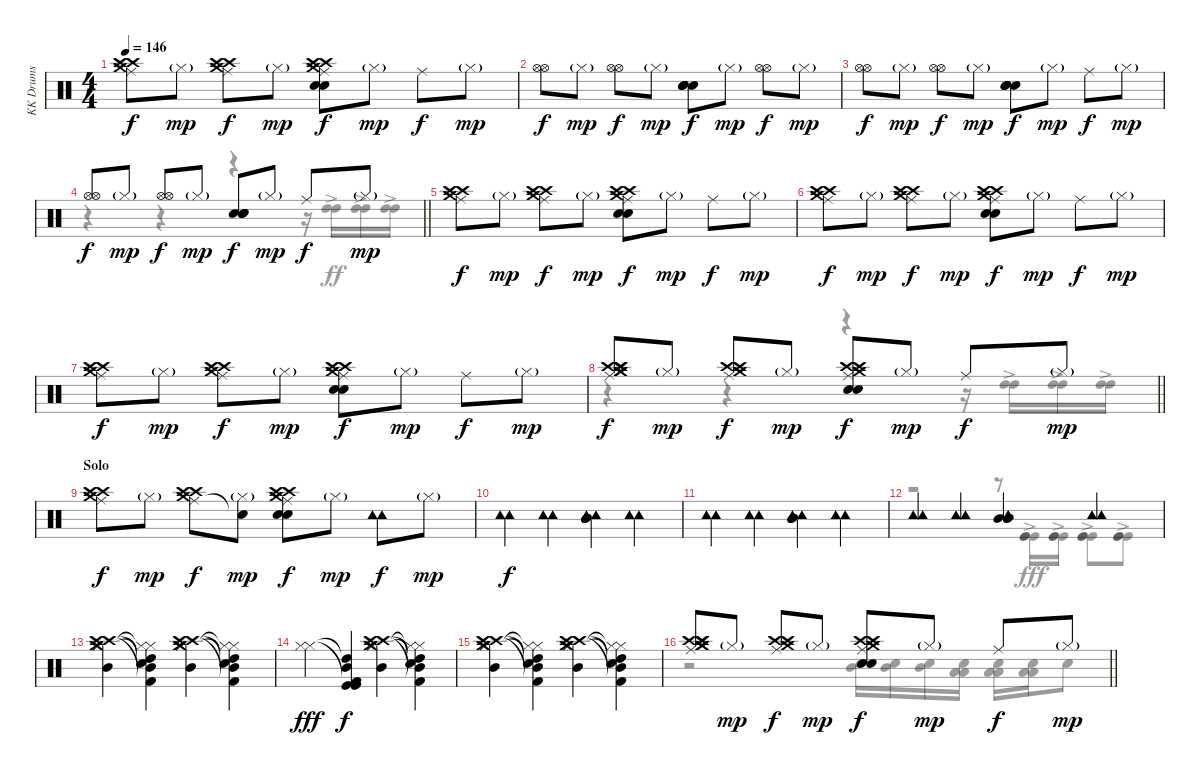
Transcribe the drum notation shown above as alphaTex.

\track ("KK Drums" "KK Drums") {instrument percussion}
\staff {score}
\articulation defaults
\voice
\ts (4 4)
\tempo 146
\clef neutral
\ks c
("Crash high (hit)" "Ride (middle)" "Crash medium (hit)" "Crash high (hit)").8{dy f} "Hi-Hat (closed)"{g}.8{dy mp} ("Crash high (hit)" "Ride (middle)" "Crash medium (hit)" "Crash high (hit)").8{dy f} "Hi-Hat (closed)"{g}.8{dy mp} ("Crash high (hit)" "Ride (middle)" "Snare (hit) 2" "Snare (hit) 2" "Crash medium (hit)" "Crash high (hit)").8{dy f} "Hi-Hat (closed)"{g}.8{dy mp} "Ride (middle)".8{dy f} "Hi-Hat (closed)"{g}.8{dy mp} |
("Hi-Hat (open)" "Hi-Hat (open)").8{dy f} "Hi-Hat (closed)"{g}.8{dy mp} ("Hi-Hat (open)" "Hi-Hat (open)").8{dy f} "Hi-Hat (closed)"{g}.8{dy mp} ("Snare (hit) 2" "Snare (hit) 2" "Snare (hit) 2" "Snare (hit) 2").8{dy f} "Hi-Hat (closed)"{g}.8{dy mp} ("Hi-Hat (open)" "Hi-Hat (open)").8{dy f} "Hi-Hat (closed)"{g}.8{dy mp} |
("Hi-Hat (open)" "Hi-Hat (open)").8{dy f} "Hi-Hat (closed)"{g}.8{dy mp} ("Hi-Hat (open)" "Hi-Hat (open)").8{dy f} "Hi-Hat (closed)"{g}.8{dy mp} ("Snare (hit) 2" "Snare (hit) 2" "Snare (hit) 2" "Snare (hit) 2").8{dy f} "Hi-Hat (closed)"{g}.8{dy mp} "Ride (middle)".8{dy f} "Hi-Hat (closed)"{g}.8{dy mp} |
\barLineRight lightlight
("Hi-Hat (open)" "Hi-Hat (open)").8{dy f} "Hi-Hat (closed)"{g}.8{dy mp} ("Hi-Hat (open)" "Hi-Hat (open)").8{dy f} "Hi-Hat (closed)"{g}.8{dy mp} ("Snare (hit) 2" "Snare (hit) 2" "Snare (hit) 2" "Snare (hit) 2").8{dy f} "Hi-Hat (closed)"{g}.8{dy mp} "Ride (middle)".8{dy f} "Hi-Hat (closed)"{g}.8{dy mp} |
("Crash high (hit)" "Ride (middle)" "Crash medium (hit)" "Crash high (hit)").8{dy f} "Hi-Hat (closed)"{g}.8{dy mp} ("Crash high (hit)" "Ride (middle)" "Crash medium (hit)" "Crash high (hit)").8{dy f} "Hi-Hat (closed)"{g}.8{dy mp} ("Crash high (hit)" "Ride (middle)" "Snare (hit) 2" "Snare (hit) 2" "Crash medium (hit)" "Crash high (hit)").8{dy f} "Hi-Hat (closed)"{g}.8{dy mp} "Ride (middle)".8{dy f} "Hi-Hat (closed)"{g}.8{dy mp} |
("Crash high (hit)" "Ride (middle)" "Crash medium (hit)" "Crash high (hit)").8{dy f} "Hi-Hat (closed)"{g}.8{dy mp} ("Crash high (hit)" "Ride (middle)" "Crash medium (hit)" "Crash high (hit)").8{dy f} "Hi-Hat (closed)"{g}.8{dy mp} ("Crash high (hit)" "Ride (middle)" "Snare (hit) 2" "Snare (hit) 2" "Crash medium (hit)" "Crash high (hit)").8{dy f} "Hi-Hat (closed)"{g}.8{dy mp} "Ride (middle)".8{dy f} "Hi-Hat (closed)"{g}.8{dy mp} |
("Crash high (hit)" "Ride (middle)" "Crash medium (hit)" "Crash high (hit)").8{dy f} "Hi-Hat (closed)"{g}.8{dy mp} ("Crash high (hit)" "Ride (middle)" "Crash medium (hit)" "Crash high (hit)").8{dy f} "Hi-Hat (closed)"{g}.8{dy mp} ("Crash high (hit)" "Ride (middle)" "Snare (hit) 2" "Snare (hit) 2" "Crash medium (hit)" "Crash high (hit)").8{dy f} "Hi-Hat (closed)"{g}.8{dy mp} "Ride (middle)".8{dy f} "Hi-Hat (closed)"{g}.8{dy mp} |
\barLineRight lightlight
("Crash high (hit)" "Ride (middle)" "Crash high (hit)" "Crash medium (hit)" "Crash medium (hit)" "Crash high (hit)").8{dy f} "Hi-Hat (closed)"{g}.8{dy mp} ("Crash high (hit)" "Ride (middle)" "Crash medium (hit)" "Crash high (hit)").8{dy f} "Hi-Hat (closed)"{g}.8{dy mp} ("Crash high (hit)" "Ride (middle)" "Snare (hit) 2" "Snare (hit) 2" "Crash medium (hit)" "Crash high (hit)").8{dy f} "Hi-Hat (closed)"{g}.8{dy mp} "Ride (middle)".8{dy f} "Hi-Hat (closed)"{g}.8{dy mp} |
\section ("" "Solo")
("Crash high (hit)" "Ride (middle)" "Crash medium (hit)" "Crash high (hit)").8{dy f} "Hi-Hat (closed)"{g}.8{dy mp} ("Crash high (hit)" "Ride (middle)" "Crash medium (hit)" "Crash high (hit)").8{dy f} ("Hi-Hat (closed)"{g} "Snare (hit)"{t}).8{dy mp} ("Crash high (hit)" "Ride (middle)" "Snare (hit) 2" "Snare (hit) 2" "Crash medium (hit)" "Crash high (hit)").8{dy f} "Hi-Hat (closed)"{g}.8{dy mp} ("Tambourine (hit)" "Tambourine (hit)").8{dy f} "Hi-Hat (closed)"{g}.8{dy mp} |
("Tambourine (hit)" "Tambourine (hit)").4{dy f} ("Tambourine (hit)" "Tambourine (hit)").4 ("Mid Tom (hit)" "Mid Tom (hit)" "Mid Tom (hit)" "Tambourine (hit)" "Tambourine (hit)").4 ("Tambourine (hit)" "Tambourine (hit)").4 |
("Tambourine (hit)" "Tambourine (hit)").4 ("Tambourine (hit)" "Tambourine (hit)").4 ("Mid Tom (hit)" "Mid Tom (hit)" "Mid Tom (hit)" "Tambourine (hit)" "Tambourine (hit)").4 ("Tambourine (hit)" "Tambourine (hit)").4 |
("Tambourine (hit)" "Tambourine (hit)").4 ("Tambourine (hit)" "Tambourine (hit)").4 ("Mid Tom (hit)" "Mid Tom (hit)" "Mid Tom (hit)" "Tambourine (hit)" "Tambourine (hit)").4 ("Tambourine (hit)" "Tambourine (hit)").4 |
("Crash high (hit)" "Crash medium (hit)" "Mid Tom (hit)" "Hi-Hat (closed)" "Hi-Hat (closed)" "Crash high (hit)").4 ("Kick (hit) 2"{t} "High Tom (hit)"{t} "Mid Tom (hit)" "Hi-Hat (closed)" "Hi-Hat (closed)"{t} "Snare (hit) 2"{t}).4 ("Crash high (hit)" "Crash medium (hit)" "Mid Tom (hit)" "Hi-Hat (closed)" "Hi-Hat (closed)" "Crash high (hit)").4 ("Kick (hit) 2"{t} "High Tom (hit)"{t} "Mid Tom (hit)" "Hi-Hat (closed)" "Hi-Hat (closed)"{t} "Snare (hit) 2"{t}).4 |
("Hi-Hat (closed)" "Hi-Hat (closed)").4{dy fff} ("Kick (hit) 2"{t} "High Tom (hit)"{t} "Mid Tom (hit)" "Kick (hit)" "Kick (hit)").4{dy f} ("Crash high (hit)" "Crash medium (hit)" "Mid Tom (hit)" "Hi-Hat (closed)" "Hi-Hat (closed)" "Crash high (hit)").4 ("Kick (hit) 2"{t} "High Tom (hit)"{t} "Mid Tom (hit)" "Hi-Hat (closed)" "Hi-Hat (closed)"{t} "Snare (hit) 2"{t}).4 |
("Crash high (hit)" "Crash medium (hit)" "Mid Tom (hit)" "Hi-Hat (closed)" "Hi-Hat (closed)" "Crash high (hit)").4 ("Kick (hit) 2"{t} "High Tom (hit)"{t} "Mid Tom (hit)" "Hi-Hat (closed)" "Hi-Hat (closed)"{t} "Snare (hit) 2"{t}).4 ("Crash high (hit)" "Crash medium (hit)" "Mid Tom (hit)" "Hi-Hat (closed)" "Hi-Hat (closed)" "Crash high (hit)").4 ("Kick (hit) 2"{t} "High Tom (hit)"{t} "Mid Tom (hit)" "Hi-Hat (closed)" "Hi-Hat (closed)"{t} "Snare (hit) 2"{t}).4 |
\barLineRight lightlight
("Crash high (hit)" "Ride (middle)" "Crash high (hit)" "Crash medium (hit)" "Crash medium (hit)" "Crash high (hit)").8 "Hi-Hat (closed)"{g}.8{dy mp} ("Crash high (hit)" "Ride (middle)" "Crash medium (hit)" "Crash high (hit)").8{dy f} "Hi-Hat (closed)"{g}.8{dy mp} ("Crash high (hit)" "Ride (middle)" "Snare (hit) 2" "Snare (hit) 2" "Crash medium (hit)" "Crash high (hit)").8{dy f} "Hi-Hat (closed)"{g}.8{dy mp} "Ride (middle)".8{dy f} "Hi-Hat (closed)"{g}.8{dy mp}
\voice
\clef neutral
\ottava regular
\simile none
\ks c
|
|
|
\barLineRight lightlight
r.4 r.4 r.4 r.16 ("High Tom (hit)"{ac} "High Tom (hit)"{ac}).16{dy ff} ("High Tom (hit)"{ac} "High Tom (hit)"{ac}).16 ("High Tom (hit)"{ac} "High Tom (hit)"{ac}).16 |
|
|
|
\barLineRight lightlight
r.4 r.4 r.4 r.16 ("High Tom (hit)"{ac} "High Tom (hit)"{ac}).16 ("High Tom (hit)"{ac} "High Tom (hit)"{ac}).16 ("High Tom (hit)"{ac} "High Tom (hit)"{ac}).16 |
|
|
|
r.2 r.8 ("Kick (hit)"{ac} "Kick (hit)"{ac} "Kick (hit)"{ac}).16{dy fff} ("Kick (hit)"{ac} "Kick (hit)"{ac} "Kick (hit)"{ac}).16 ("Kick (hit)"{ac} "Kick (hit)"{ac} "Kick (hit)"{ac}).8 ("Kick (hit)"{ac} "Kick (hit)"{ac} "Kick (hit)"{ac}).8 |
|
|
|
\barLineRight lightlight
r.2 ("Snare (hit) 2" "Mid Tom (hit)").16{dy f} ("Snare (hit) 2" "Mid Tom (hit)").16 ("Snare (hit) 2" "Mid Tom (hit)").16 ("Snare (hit) 2" "Low Tom (hit)" "Low Tom (hit)").16 ("Snare (hit) 2" "Low Tom (hit)" "Low Tom (hit)").16 ("Snare (hit) 2" "Low Tom (hit)" "Low Tom (hit)").16 "Snare (hit) 2".8
